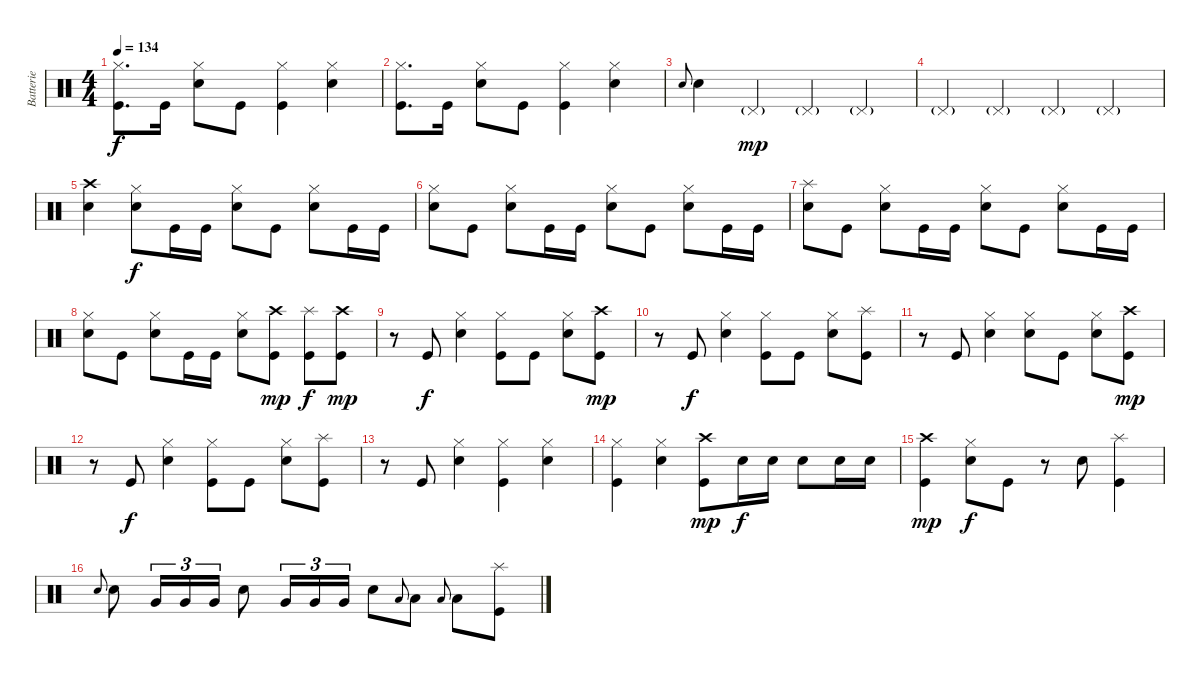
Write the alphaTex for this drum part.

\track ("Batterie" "Batterie") {instrument percussion}
\staff {score}
\articulation defaults
\ts (4 4)
\tempo 134
\clef neutral
\ks c
("Hi-Hat (closed)" "Kick (hit)").8{d dy f} "Kick (hit)".16 ("Hi-Hat (closed)" "Snare (hit) 2").8 "Kick (hit)".8 ("Hi-Hat (closed)" "Kick (hit)").4 ("Hi-Hat (closed)" "Snare (hit) 2").4 |
("Hi-Hat (closed)" "Kick (hit)").8{d} "Kick (hit)".16 ("Hi-Hat (closed)" "Snare (hit) 2").8 "Kick (hit)".8 ("Hi-Hat (closed)" "Kick (hit)").4 ("Hi-Hat (closed)" "Snare (hit) 2").4 |
"Snare (hit) 2".8{gr onbeat} "Snare (hit) 2".4 "Pedal Hi-Hat (hit)"{g}.4{dy mp} "Pedal Hi-Hat (hit)"{g}.4 "Pedal Hi-Hat (hit)"{g}.4 |
"Pedal Hi-Hat (hit)"{g}.4 "Pedal Hi-Hat (hit)"{g}.4 "Pedal Hi-Hat (hit)"{g}.4 "Pedal Hi-Hat (hit)"{g}.4 |
("Crash high (hit)" "Snare (hit) 2").4 ("Hi-Hat (closed)" "Snare (hit) 2").8{dy f} "Kick (hit)".16 "Kick (hit)".16 ("Hi-Hat (closed)" "Snare (hit) 2").8 "Kick (hit)".8 ("Hi-Hat (closed)" "Snare (hit) 2").8 "Kick (hit)".16 "Kick (hit)".16 |
("Hi-Hat (closed)" "Snare (hit) 2").8 "Kick (hit)".8 ("Hi-Hat (closed)" "Snare (hit) 2").8 "Kick (hit)".16 "Kick (hit)".16 ("Hi-Hat (closed)" "Snare (hit) 2").8 "Kick (hit)".8 ("Hi-Hat (closed)" "Snare (hit) 2").8 "Kick (hit)".16 "Kick (hit)".16 |
("Splash (hit)" "Snare (hit) 2").8 "Kick (hit)".8 ("Hi-Hat (closed)" "Snare (hit) 2").8 "Kick (hit)".16 "Kick (hit)".16 ("Hi-Hat (closed)" "Snare (hit) 2").8 "Kick (hit)".8 ("Hi-Hat (closed)" "Snare (hit) 2").8 "Kick (hit)".16 "Kick (hit)".16 |
("Hi-Hat (closed)" "Snare (hit) 2").8 "Kick (hit)".8 ("Hi-Hat (closed)" "Snare (hit) 2").8 "Kick (hit)".16 "Kick (hit)".16 ("Hi-Hat (closed)" "Snare (hit) 2").8 ("Crash high (hit)" "Kick (hit)").8{dy mp} ("Splash (hit)" "Kick (hit)").8{dy f} ("Crash high (hit)" "Kick (hit)").8{dy mp} |
r.8 "Kick (hit)".8{dy f} ("Hi-Hat (closed)" "Snare (hit) 2").4 ("Hi-Hat (closed)" "Kick (hit)").8 "Kick (hit)".8 ("Hi-Hat (closed)" "Snare (hit) 2").8 ("Crash high (hit)" "Kick (hit)").8{dy mp} |
r.8 "Kick (hit)".8{dy f} ("Hi-Hat (closed)" "Snare (hit) 2").4 ("Hi-Hat (closed)" "Kick (hit)").8 "Kick (hit)".8 ("Hi-Hat (closed)" "Snare (hit) 2").8 ("Splash (hit)" "Kick (hit)").8 |
r.8 "Kick (hit)".8 ("Hi-Hat (closed)" "Snare (hit) 2").4 ("Hi-Hat (closed)" "Snare (hit) 2").8 "Kick (hit)".8 ("Hi-Hat (closed)" "Snare (hit) 2").8 ("Crash high (hit)" "Kick (hit)").8{dy mp} |
r.8 "Kick (hit)".8{dy f} ("Hi-Hat (closed)" "Snare (hit) 2").4 ("Hi-Hat (closed)" "Kick (hit)").8 "Kick (hit)".8 ("Hi-Hat (closed)" "Snare (hit) 2").8 ("Splash (hit)" "Kick (hit)").8 |
r.8 "Kick (hit)".8 ("Hi-Hat (closed)" "Snare (hit) 2").4 ("Hi-Hat (closed)" "Kick (hit)").4 ("Hi-Hat (closed)" "Snare (hit) 2").4 |
("Hi-Hat (closed)" "Kick (hit)").4 ("Hi-Hat (closed)" "Snare (hit) 2").4 ("Crash high (hit)" "Kick (hit)").8{dy mp} "Snare (hit) 2".16{dy f} "Snare (hit) 2".16 "Snare (hit) 2".8 "Snare (hit) 2".16 "Snare (hit) 2".16 |
("Crash high (hit)" "Kick (hit)").4{dy mp} ("Hi-Hat (closed)" "Snare (hit) 2").8{dy f} "Kick (hit)".8 r.8 "Snare (hit) 2".8 ("Splash (hit)" "Kick (hit)").4 |
"Snare (hit) 2".8{gr onbeat} "Snare (hit) 2".8 "Very Low Tom (hit)".16{tu (3 2)} "Very Low Tom (hit)".16{tu (3 2)} "Very Low Tom (hit)".16{tu (3 2)} "Snare (hit) 2".8 "Very Low Tom (hit)".16{tu (3 2)} "Very Low Tom (hit)".16{tu (3 2)} "Very Low Tom (hit)".16{tu (3 2)} "Snare (hit) 2".8 "Low Floor Tom (hit)".8{gr onbeat} "Low Floor Tom (hit)".8 "Low Floor Tom (hit)".8{gr onbeat} "Low Floor Tom (hit)".8 ("Splash (hit)" "Kick (hit)").8
